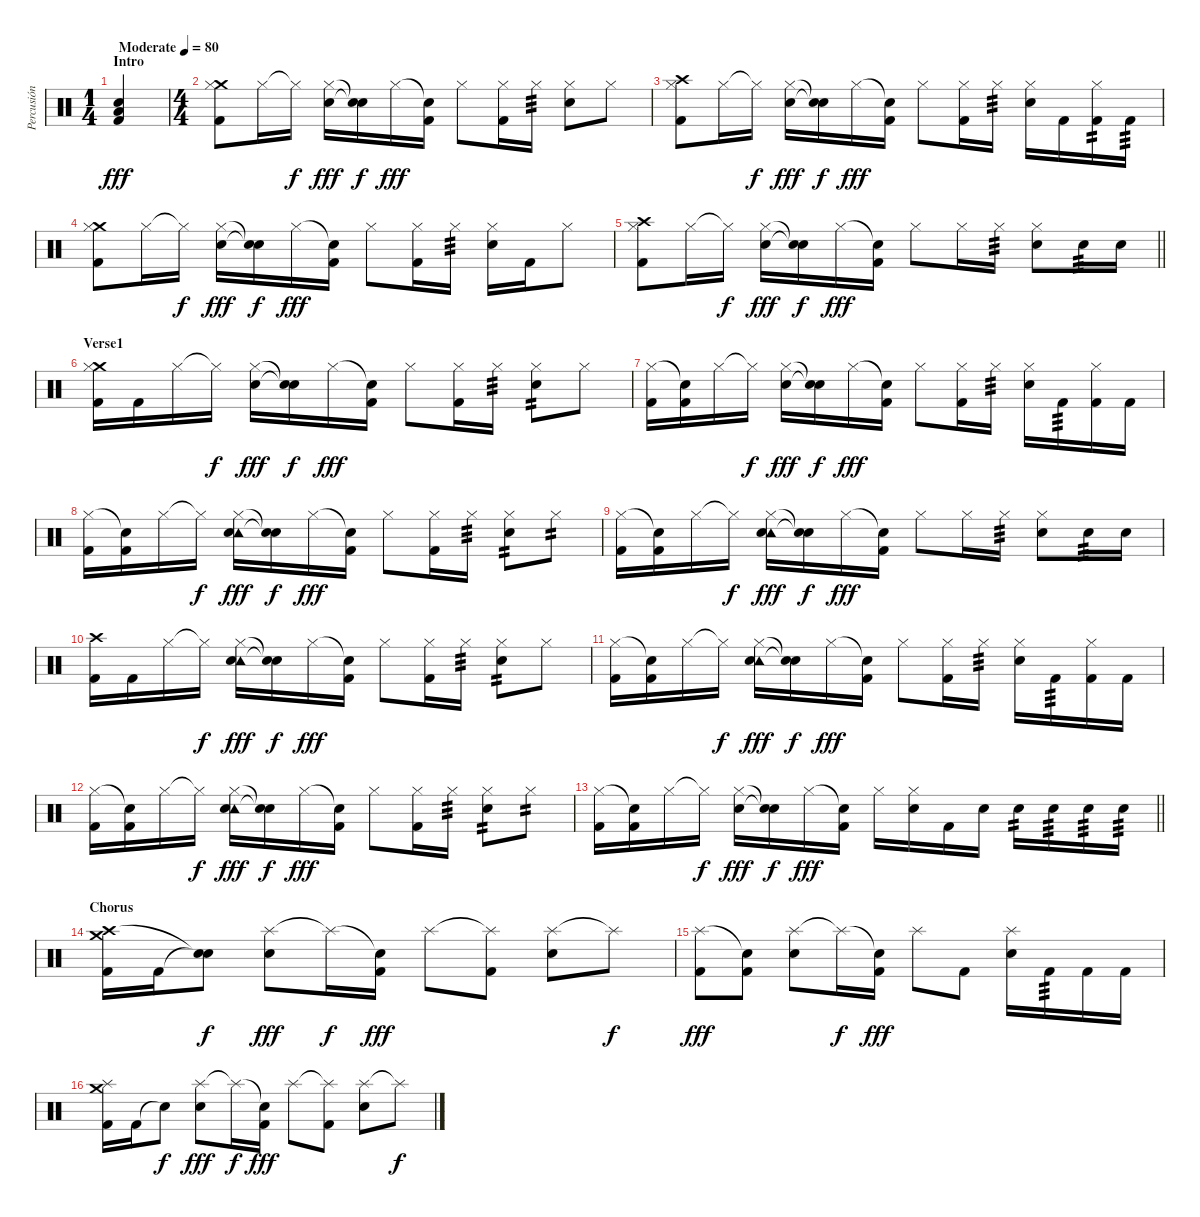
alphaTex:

\track ("Percusión" "Percusión") {instrument percussion}
\staff {score}
\articulation defaults
\ts (1 4)
\section ("" "Intro")
\tempo (80 "Moderate")
\clef neutral
\ks c
("Low Tom (hit)" "Electric Snare (hit)" "Kick (hit) 2").4{dy fff} |
\ts (4 4)
("Crash medium (hit)" "Hi-Hat (closed)" "Kick (hit) 2").8 "Hi-Hat (closed)".16 "Hi-Hat (closed)"{t}.16{dy f} ("Hi-Hat (closed)" "Electric Snare (hit)").16{dy fff} ("Snare (hit)"{t} "Snare (hit)"{t}).16{dy f} "Hi-Hat (closed)".16{dy fff} ("Snare (hit)"{t} "Kick (hit) 2").16 "Hi-Hat (closed)".8 ("Hi-Hat (closed)" "Kick (hit) 2").16 "Hi-Hat (closed)".16{tp 3} ("Hi-Hat (closed)" "Electric Snare (hit)").8 "Hi-Hat (closed)".8 |
("Crash high (hit)" "Hi-Hat (closed)" "Kick (hit) 2").8 "Hi-Hat (closed)".16 "Hi-Hat (closed)"{t}.16{dy f} ("Hi-Hat (closed)" "Electric Snare (hit)").16{dy fff} ("Snare (hit)"{t} "Snare (hit)"{t}).16{dy f} "Hi-Hat (closed)".16{dy fff} ("Snare (hit)"{t} "Kick (hit) 2").16 "Hi-Hat (closed)".8 ("Hi-Hat (closed)" "Kick (hit) 2").16 "Hi-Hat (closed)".16{tp 3} ("Hi-Hat (closed)" "Electric Snare (hit)").16 "Kick (hit) 2".16 ("Hi-Hat (closed)" "Kick (hit) 2").16{tp 2} "Kick (hit) 2".16{tp 3} |
("Crash medium (hit)" "Hi-Hat (closed)" "Kick (hit) 2").8 "Hi-Hat (closed)".16 "Hi-Hat (closed)"{t}.16{dy f} ("Hi-Hat (closed)" "Electric Snare (hit)").16{dy fff} ("Snare (hit)"{t} "Snare (hit)"{t}).16{dy f} "Hi-Hat (closed)".16{dy fff} ("Snare (hit)"{t} "Kick (hit) 2").16 "Hi-Hat (closed)".8 ("Hi-Hat (closed)" "Kick (hit) 2").16 "Hi-Hat (closed)".16{tp 3} ("Hi-Hat (closed)" "Electric Snare (hit)").16 "Kick (hit) 2".16 "Hi-Hat (closed)".8 |
\barLineRight lightlight
("Crash high (hit)" "Hi-Hat (closed)" "Kick (hit) 2").8 "Hi-Hat (closed)".16 "Hi-Hat (closed)"{t}.16{dy f} ("Hi-Hat (closed)" "Electric Snare (hit)").16{dy fff} ("Snare (hit)"{t} "Snare (hit)"{t}).16{dy f} "Hi-Hat (closed)".16{dy fff} ("Snare (hit)"{t} "Kick (hit) 2").16 "Hi-Hat (closed)".8 "Hi-Hat (closed)".16 "Hi-Hat (closed)".16{tp 3} ("Hi-Hat (closed)" "Electric Snare (hit)").8 "Electric Snare (hit)".16{tp 3} "Electric Snare (hit)".16 |
\section ("" "Verse1")
("Crash medium (hit)" "Hi-Hat (closed)" "Kick (hit) 2").16 "Kick (hit) 2".16 "Hi-Hat (closed)".16 "Hi-Hat (closed)"{t}.16{dy f} ("Hi-Hat (closed)" "Electric Snare (hit)").16{dy fff} ("Snare (hit)"{t} "Snare (hit)"{t}).16{dy f} "Hi-Hat (closed)".16{dy fff} ("Snare (hit)"{t} "Kick (hit) 2").16 "Hi-Hat (closed)".8 ("Hi-Hat (closed)" "Kick (hit) 2").16 "Hi-Hat (closed)".16{tp 3} ("Hi-Hat (closed)" "Electric Snare (hit)").8{tp 2} "Hi-Hat (closed)".8 |
("Hi-Hat (closed)" "Kick (hit) 2").16 ("Snare (hit)"{t} "Kick (hit) 2").16 "Hi-Hat (closed)".16 "Hi-Hat (closed)"{t}.16{dy f} ("Hi-Hat (closed)" "Electric Snare (hit)").16{dy fff} ("Snare (hit)"{t} "Snare (hit)"{t}).16{dy f} "Hi-Hat (closed)".16{dy fff} ("Snare (hit)"{t} "Kick (hit) 2").16 "Hi-Hat (closed)".8 ("Hi-Hat (closed)" "Kick (hit) 2").16 "Hi-Hat (closed)".16{tp 3} ("Hi-Hat (closed)" "Electric Snare (hit)").16 "Kick (hit) 2".16{tp 3} ("Hi-Hat (closed)" "Kick (hit) 2").16 "Kick (hit) 2".16 |
("Hi-Hat (closed)" "Kick (hit) 2").16 ("Snare (hit)"{t} "Kick (hit) 2").16 "Hi-Hat (closed)".16 "Hi-Hat (closed)"{t}.16{dy f} ("Tambourine (hit)" "Hi-Hat (closed)" "Electric Snare (hit)").16{dy fff} ("Snare (hit)"{t} "Snare (hit)"{t}).16{dy f} "Hi-Hat (closed)".16{dy fff} ("Snare (hit)"{t} "Kick (hit) 2").16 "Hi-Hat (closed)".8 ("Hi-Hat (closed)" "Kick (hit) 2").16 "Hi-Hat (closed)".16{tp 3} ("Hi-Hat (closed)" "Electric Snare (hit)").8{tp 2} "Hi-Hat (closed)".8{tp 2} |
("Hi-Hat (closed)" "Kick (hit) 2").16 ("Snare (hit)"{t} "Kick (hit) 2").16 "Hi-Hat (closed)".16 "Hi-Hat (closed)"{t}.16{dy f} ("Tambourine (hit)" "Hi-Hat (closed)" "Electric Snare (hit)").16{dy fff} ("Snare (hit)"{t} "Snare (hit)"{t}).16{dy f} "Hi-Hat (closed)".16{dy fff} ("Snare (hit)"{t} "Kick (hit) 2").16 "Hi-Hat (closed)".8 "Hi-Hat (closed)".16 "Hi-Hat (closed)".16{tp 3} ("Hi-Hat (closed)" "Electric Snare (hit)").8 "Electric Snare (hit)".16{tp 3} "Electric Snare (hit)".16 |
("Crash high (hit)" "Kick (hit) 2").16 "Kick (hit) 2".16 "Hi-Hat (closed)".16 "Hi-Hat (closed)"{t}.16{dy f} ("Tambourine (hit)" "Hi-Hat (closed)" "Electric Snare (hit)").16{dy fff} ("Snare (hit)"{t} "Snare (hit)"{t}).16{dy f} "Hi-Hat (closed)".16{dy fff} ("Snare (hit)"{t} "Kick (hit) 2").16 "Hi-Hat (closed)".8 ("Hi-Hat (closed)" "Kick (hit) 2").16 "Hi-Hat (closed)".16{tp 3} ("Hi-Hat (closed)" "Electric Snare (hit)").8{tp 2} "Hi-Hat (closed)".8 |
("Hi-Hat (closed)" "Kick (hit) 2").16 ("Snare (hit)"{t} "Kick (hit) 2").16 "Hi-Hat (closed)".16 "Hi-Hat (closed)"{t}.16{dy f} ("Tambourine (hit)" "Hi-Hat (closed)" "Electric Snare (hit)").16{dy fff} ("Snare (hit)"{t} "Snare (hit)"{t}).16{dy f} "Hi-Hat (closed)".16{dy fff} ("Snare (hit)"{t} "Kick (hit) 2").16 "Hi-Hat (closed)".8 ("Hi-Hat (closed)" "Kick (hit) 2").16 "Hi-Hat (closed)".16{tp 3} ("Hi-Hat (closed)" "Electric Snare (hit)").16 "Kick (hit) 2".16{tp 3} ("Hi-Hat (closed)" "Kick (hit) 2").16 "Kick (hit) 2".16 |
("Hi-Hat (closed)" "Kick (hit) 2").16 ("Snare (hit)"{t} "Kick (hit) 2").16 "Hi-Hat (closed)".16 "Hi-Hat (closed)"{t}.16{dy f} ("Tambourine (hit)" "Hi-Hat (closed)" "Electric Snare (hit)").16{dy fff} ("Snare (hit)"{t} "Snare (hit)"{t}).16{dy f} "Hi-Hat (closed)".16{dy fff} ("Snare (hit)"{t} "Kick (hit) 2").16 "Hi-Hat (closed)".8 ("Hi-Hat (closed)" "Kick (hit) 2").16 "Hi-Hat (closed)".16{tp 3} ("Hi-Hat (closed)" "Electric Snare (hit)").8{tp 2} "Hi-Hat (closed)".8{tp 2} |
\barLineRight lightlight
("Hi-Hat (closed)" "Kick (hit) 2").16 ("Snare (hit)"{t} "Kick (hit) 2").16 "Hi-Hat (closed)".16 "Hi-Hat (closed)"{t}.16{dy f} ("Hi-Hat (closed)" "Electric Snare (hit)").16{dy fff} ("Snare (hit)"{t} "Snare (hit)"{t}).16{dy f} "Hi-Hat (closed)".16{dy fff} ("Snare (hit)"{t} "Kick (hit) 2").16 "Hi-Hat (closed)".16 ("Hi-Hat (closed)" "Electric Snare (hit)").16 "Kick (hit) 2".16 "Electric Snare (hit)".16 "Electric Snare (hit)".16{tp 2} "Electric Snare (hit)".16{tp 3} "Electric Snare (hit)".16{tp 3} "Electric Snare (hit)".16{tp 3} |
\section ("" "Chorus")
("Crash medium (hit)" "Crash high (hit)" "Kick (hit) 2").16 "Kick (hit) 2".16 ("Snare (hit)"{t} "Snare (hit)"{t}).8{dy f} ("Splash (hit)" "Electric Snare (hit)").8{dy fff} "Splash (hit)"{t}.16{dy f} ("Snare (hit)"{t} "Kick (hit) 2").16{dy fff} "Splash (hit)".8 ("Splash (hit)"{t} "Kick (hit) 2").8 ("Splash (hit)" "Electric Snare (hit)").8 "Splash (hit)"{t}.8{dy f} |
("Splash (hit)" "Kick (hit) 2").8{dy fff} ("Snare (hit)"{t} "Kick (hit) 2").8 ("Splash (hit)" "Electric Snare (hit)").8 "Splash (hit)"{t}.16{dy f} ("Snare (hit)"{t} "Kick (hit) 2").16{dy fff} "Splash (hit)".8 "Kick (hit) 2".8 ("Splash (hit)" "Electric Snare (hit)").16 "Kick (hit) 2".16{tp 3} "Kick (hit) 2".16 "Kick (hit) 2".16 |
("Crash medium (hit)" "Splash (hit)" "Kick (hit) 2").16 "Kick (hit) 2".16 "Snare (hit)"{t}.8{dy f} ("Splash (hit)" "Electric Snare (hit)").8{dy fff} "Splash (hit)"{t}.16{dy f} ("Snare (hit)"{t} "Kick (hit) 2").16{dy fff} "Splash (hit)".8 ("Splash (hit)"{t} "Kick (hit) 2").8 ("Splash (hit)" "Electric Snare (hit)").8 "Splash (hit)"{t}.8{dy f}
